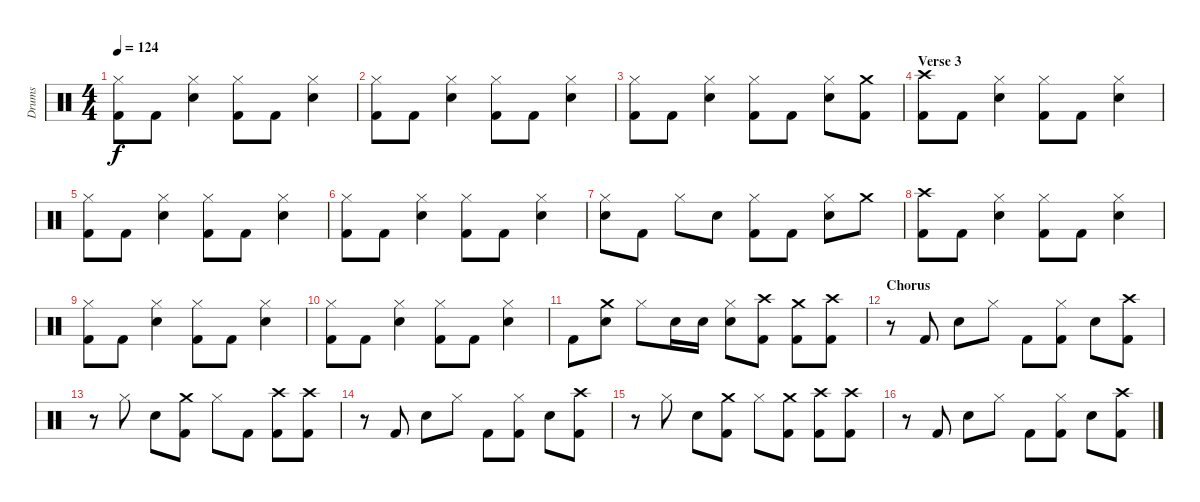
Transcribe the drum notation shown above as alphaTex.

\track ("Drums" "Drums") {instrument percussion}
\staff {score}
\articulation defaults
\ts (4 4)
\tempo 124
\clef neutral
\ks c
("Kick (hit) 2" "Hi-Hat (closed)").8{dy f} "Kick (hit) 2".8 ("Snare (hit) 2" "Hi-Hat (closed)").4 ("Kick (hit) 2" "Hi-Hat (closed)").8 "Kick (hit) 2".8 ("Snare (hit) 2" "Hi-Hat (closed)").4 |
("Kick (hit) 2" "Hi-Hat (closed)").8 "Kick (hit) 2".8 ("Snare (hit) 2" "Hi-Hat (closed)").4 ("Kick (hit) 2" "Hi-Hat (closed)").8 "Kick (hit) 2".8 ("Snare (hit) 2" "Hi-Hat (closed)").4 |
("Kick (hit) 2" "Hi-Hat (closed)").8 "Kick (hit) 2".8 ("Snare (hit) 2" "Hi-Hat (closed)").4 ("Kick (hit) 2" "Hi-Hat (closed)").8 "Kick (hit) 2".8 ("Snare (hit) 2" "Hi-Hat (closed)").8 ("Kick (hit) 2" "Crash medium (hit)").8 |
\section ("" "Verse 3")
("Kick (hit) 2" "Crash high (hit)").8 "Kick (hit) 2".8 ("Snare (hit) 2" "Hi-Hat (closed)").4 ("Kick (hit) 2" "Hi-Hat (closed)").8 "Kick (hit) 2".8 ("Snare (hit) 2" "Hi-Hat (closed)").4 |
("Kick (hit) 2" "Hi-Hat (closed)").8 "Kick (hit) 2".8 ("Snare (hit) 2" "Hi-Hat (closed)").4 ("Kick (hit) 2" "Hi-Hat (closed)").8 "Kick (hit) 2".8 ("Snare (hit) 2" "Hi-Hat (closed)").4 |
("Kick (hit) 2" "Hi-Hat (closed)").8 "Kick (hit) 2".8 ("Snare (hit) 2" "Hi-Hat (closed)").4 ("Kick (hit) 2" "Hi-Hat (closed)").8 "Kick (hit) 2".8 ("Snare (hit) 2" "Hi-Hat (closed)").4 |
("Snare (hit) 2" "Hi-Hat (closed)").8 "Kick (hit) 2".8 "Hi-Hat (closed)".8 "Snare (hit) 2".8 ("Kick (hit) 2" "Hi-Hat (closed)").8 "Kick (hit) 2".8 ("Snare (hit) 2" "Hi-Hat (closed)").8 "Crash medium (hit)".8 |
("Kick (hit) 2" "Crash high (hit)").8 "Kick (hit) 2".8 ("Snare (hit) 2" "Hi-Hat (closed)").4 ("Kick (hit) 2" "Hi-Hat (closed)").8 "Kick (hit) 2".8 ("Snare (hit) 2" "Hi-Hat (closed)").4 |
("Kick (hit) 2" "Hi-Hat (closed)").8 "Kick (hit) 2".8 ("Snare (hit) 2" "Hi-Hat (closed)").4 ("Kick (hit) 2" "Hi-Hat (closed)").8 "Kick (hit) 2".8 ("Snare (hit) 2" "Hi-Hat (closed)").4 |
("Kick (hit) 2" "Hi-Hat (closed)").8 "Kick (hit) 2".8 ("Snare (hit) 2" "Hi-Hat (closed)").4 ("Kick (hit) 2" "Hi-Hat (closed)").8 "Kick (hit) 2".8 ("Snare (hit) 2" "Hi-Hat (closed)").4 |
"Kick (hit) 2".8 ("Snare (hit) 2" "Crash medium (hit)").8 "Hi-Hat (closed)".8 "Snare (hit) 2".16 "Snare (hit) 2".16 ("Snare (hit) 2" "Hi-Hat (closed)").8 ("Kick (hit) 2" "Crash high (hit)").8 ("Kick (hit) 2" "Crash medium (hit)").8 ("Kick (hit) 2" "Crash high (hit)").8 |
\section ("" "Chorus")
r.8 "Kick (hit) 2".8 "Snare (hit) 2".8 "Hi-Hat (closed)".8 "Kick (hit) 2".8 ("Kick (hit) 2" "Hi-Hat (closed)").8 "Snare (hit) 2".8 ("Kick (hit) 2" "Crash high (hit)").8 |
r.8 "Hi-Hat (closed)".8 "Snare (hit) 2".8 ("Kick (hit) 2" "Crash medium (hit)").8 "Hi-Hat (closed)".8 "Kick (hit) 2".8 ("Kick (hit) 2" "Crash high (hit)").8 ("Kick (hit) 2" "Crash high (hit)").8 |
r.8 "Kick (hit) 2".8 "Snare (hit) 2".8 "Hi-Hat (closed)".8 "Kick (hit) 2".8 ("Kick (hit) 2" "Hi-Hat (closed)").8 "Snare (hit) 2".8 ("Kick (hit) 2" "Crash high (hit)").8 |
r.8 "Hi-Hat (closed)".8 "Snare (hit) 2".8 ("Kick (hit) 2" "Crash medium (hit)").8 "Hi-Hat (closed)".8 ("Kick (hit) 2" "Crash medium (hit)").8 ("Kick (hit) 2" "Crash high (hit)").8 ("Kick (hit) 2" "Crash high (hit)").8 |
r.8 "Kick (hit) 2".8 "Snare (hit) 2".8 "Hi-Hat (closed)".8 "Kick (hit) 2".8 ("Kick (hit) 2" "Hi-Hat (closed)").8 "Snare (hit) 2".8 ("Kick (hit) 2" "Crash high (hit)").8
